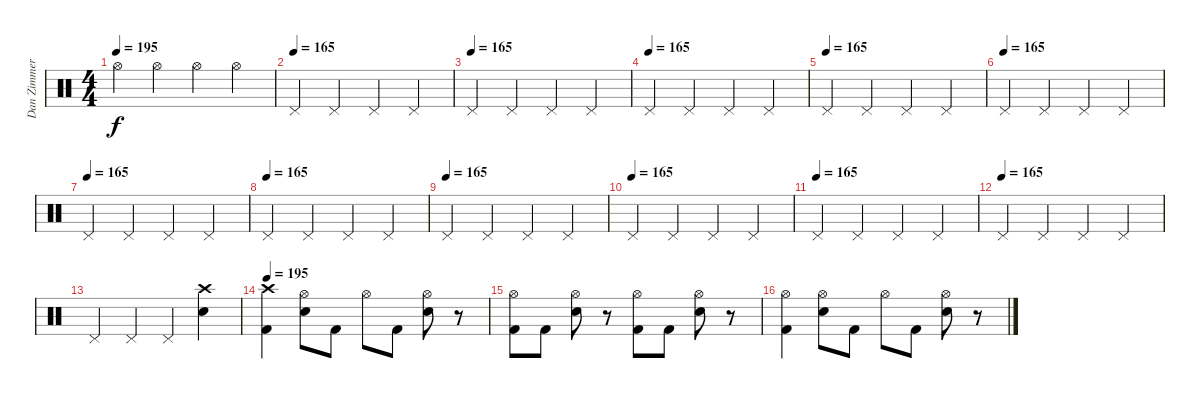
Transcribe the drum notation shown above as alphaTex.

\track ("Dan Zimmermann" "Dan Zimmer") {instrument percussion}
\staff {score}
\articulation defaults
\ts (4 4)
\tempo 195
\tempo 165
\tempo 195
\clef neutral
\ks c "Hi-Hat (open)".4{dy f} "Hi-Hat (open)".4 "Hi-Hat (open)".4 "Hi-Hat (open)".4
|
\tempo (165)
"Pedal Hi-Hat (hit)".4 "Pedal Hi-Hat (hit)".4 "Pedal Hi-Hat (hit)".4 "Pedal Hi-Hat (hit)".4 |
\tempo (165)
"Pedal Hi-Hat (hit)".4 "Pedal Hi-Hat (hit)".4 "Pedal Hi-Hat (hit)".4 "Pedal Hi-Hat (hit)".4 |
\tempo (165)
"Pedal Hi-Hat (hit)".4 "Pedal Hi-Hat (hit)".4 "Pedal Hi-Hat (hit)".4 "Pedal Hi-Hat (hit)".4 |
\tempo (165)
"Pedal Hi-Hat (hit)".4 "Pedal Hi-Hat (hit)".4 "Pedal Hi-Hat (hit)".4 "Pedal Hi-Hat (hit)".4 |
\tempo (165)
"Pedal Hi-Hat (hit)".4 "Pedal Hi-Hat (hit)".4 "Pedal Hi-Hat (hit)".4 "Pedal Hi-Hat (hit)".4 |
\tempo (165)
"Pedal Hi-Hat (hit)".4 "Pedal Hi-Hat (hit)".4 "Pedal Hi-Hat (hit)".4 "Pedal Hi-Hat (hit)".4 |
\tempo (165)
"Pedal Hi-Hat (hit)".4 "Pedal Hi-Hat (hit)".4 "Pedal Hi-Hat (hit)".4 "Pedal Hi-Hat (hit)".4 |
\tempo (165)
"Pedal Hi-Hat (hit)".4 "Pedal Hi-Hat (hit)".4 "Pedal Hi-Hat (hit)".4 "Pedal Hi-Hat (hit)".4 |
\tempo (165)
"Pedal Hi-Hat (hit)".4 "Pedal Hi-Hat (hit)".4 "Pedal Hi-Hat (hit)".4 "Pedal Hi-Hat (hit)".4 |
\tempo (165)
"Pedal Hi-Hat (hit)".4 "Pedal Hi-Hat (hit)".4 "Pedal Hi-Hat (hit)".4 "Pedal Hi-Hat (hit)".4 |
\tempo (165)
"Pedal Hi-Hat (hit)".4 "Pedal Hi-Hat (hit)".4 "Pedal Hi-Hat (hit)".4 "Pedal Hi-Hat (hit)".4 |
"Pedal Hi-Hat (hit)".4 "Pedal Hi-Hat (hit)".4 "Pedal Hi-Hat (hit)".4 ("Crash high (hit)" "Electric Snare (hit)").4 |
\tempo 195
("Crash high (hit)" "Kick (hit) 2").4 ("Hi-Hat (open)" "Electric Snare (hit)").8 "Kick (hit) 2".8 "Hi-Hat (open)".8 "Kick (hit) 2".8 ("Hi-Hat (open)" "Electric Snare (hit)").8 r.8 |
("Hi-Hat (open)" "Kick (hit) 2").8 "Kick (hit) 2".8 ("Hi-Hat (open)" "Electric Snare (hit)").8 r.8 ("Hi-Hat (open)" "Kick (hit) 2").8 "Kick (hit) 2".8 ("Hi-Hat (open)" "Electric Snare (hit)").8 r.8 |
("Hi-Hat (open)" "Kick (hit) 2").4 ("Hi-Hat (open)" "Electric Snare (hit)").8 "Kick (hit) 2".8 "Hi-Hat (open)".8 "Kick (hit) 2".8 ("Hi-Hat (open)" "Electric Snare (hit)").8 r.8
